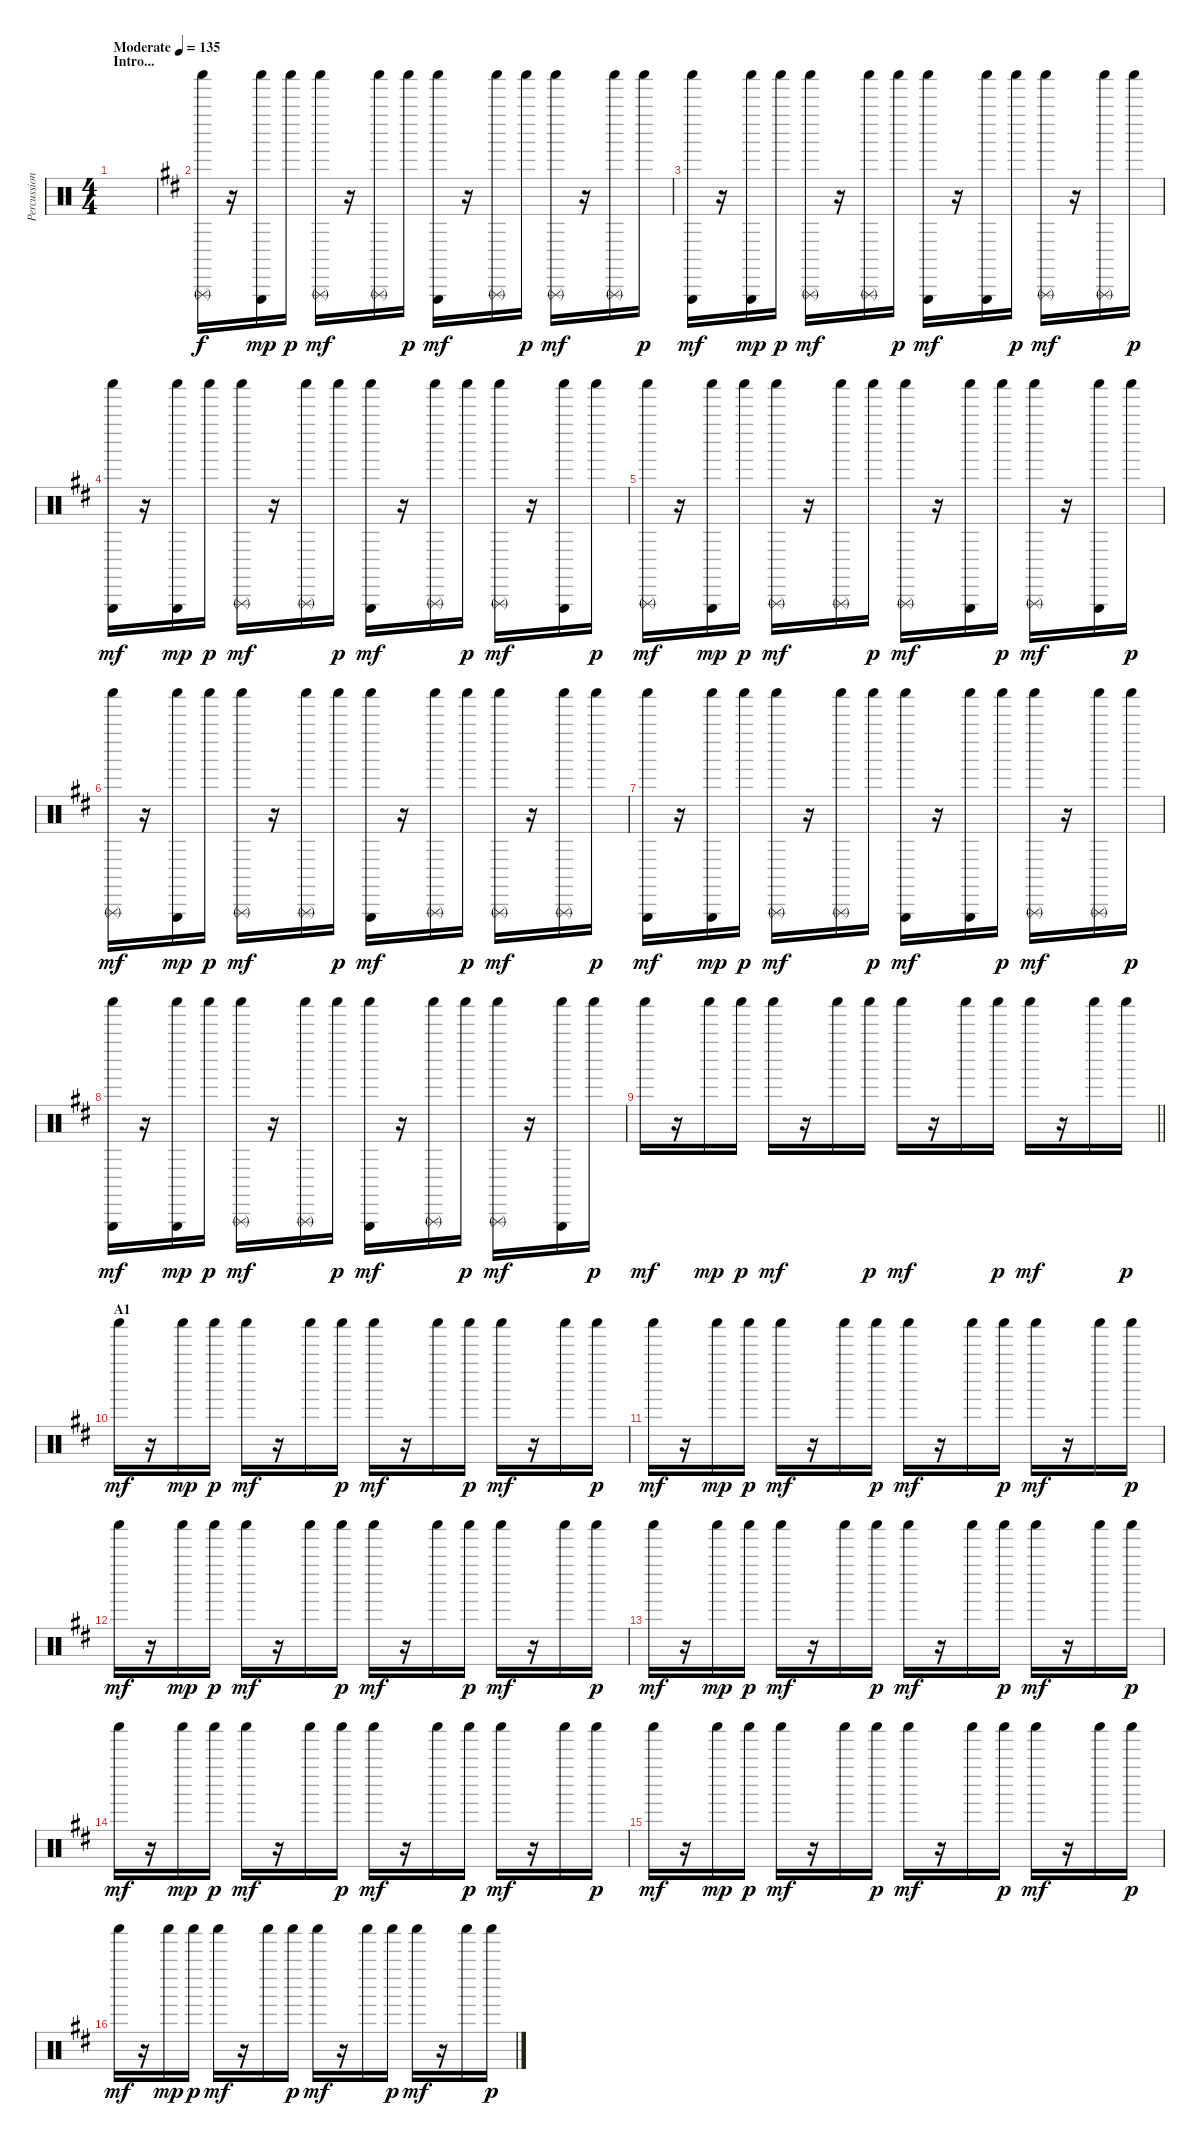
\track ("Percussion" "Percussion") {instrument percussion}
\staff {score}
\articulation defaults
\ts (4 4)
\section ("" "Intro...")
\tempo (135 "Moderate")
\clef neutral
\ks c
|
\ks d
("Triangle (rnute)" "Shaker (hit)").16 r.16 ("Triangle (hit)" "Shaker (hit)").16{dy mp} "Shaker (hit)".16{dy p} ("Triangle (rnute)" "Shaker (hit)").16{dy mf} r.16 ("Triangle (rnute)" "Shaker (hit)").16 "Shaker (hit)".16{dy p} ("Triangle (hit)" "Shaker (hit)").16{dy mf} r.16 ("Triangle (rnute)" "Shaker (hit)").16 "Shaker (hit)".16{dy p} ("Triangle (rnute)" "Shaker (hit)").16{dy mf} r.16 ("Triangle (rnute)" "Shaker (hit)").16 "Shaker (hit)".16{dy p} |
("Triangle (hit)" "Shaker (hit)").16{dy mf} r.16 ("Triangle (hit)" "Shaker (hit)").16{dy mp} "Shaker (hit)".16{dy p} ("Triangle (rnute)" "Shaker (hit)").16{dy mf} r.16 ("Triangle (rnute)" "Shaker (hit)").16 "Shaker (hit)".16{dy p} ("Triangle (hit)" "Shaker (hit)").16{dy mf} r.16 ("Triangle (hit)" "Shaker (hit)").16 "Shaker (hit)".16{dy p} ("Triangle (rnute)" "Shaker (hit)").16{dy mf} r.16 ("Triangle (rnute)" "Shaker (hit)").16 "Shaker (hit)".16{dy p} |
("Triangle (hit)" "Shaker (hit)").16{dy mf} r.16 ("Triangle (hit)" "Shaker (hit)").16{dy mp} "Shaker (hit)".16{dy p} ("Triangle (rnute)" "Shaker (hit)").16{dy mf} r.16 ("Triangle (rnute)" "Shaker (hit)").16 "Shaker (hit)".16{dy p} ("Triangle (hit)" "Shaker (hit)").16{dy mf} r.16 ("Triangle (rnute)" "Shaker (hit)").16 "Shaker (hit)".16{dy p} ("Triangle (rnute)" "Shaker (hit)").16{dy mf} r.16 ("Triangle (hit)" "Shaker (hit)").16 "Shaker (hit)".16{dy p} |
("Triangle (rnute)" "Shaker (hit)").16{dy mf} r.16 ("Triangle (hit)" "Shaker (hit)").16{dy mp} "Shaker (hit)".16{dy p} ("Triangle (rnute)" "Shaker (hit)").16{dy mf} r.16 ("Triangle (rnute)" "Shaker (hit)").16 "Shaker (hit)".16{dy p} ("Triangle (rnute)" "Shaker (hit)").16{dy mf} r.16 ("Triangle (hit)" "Shaker (hit)").16 "Shaker (hit)".16{dy p} ("Triangle (rnute)" "Shaker (hit)").16{dy mf} r.16 ("Triangle (hit)" "Shaker (hit)").16 "Shaker (hit)".16{dy p} |
("Triangle (rnute)" "Shaker (hit)").16{dy mf} r.16 ("Triangle (hit)" "Shaker (hit)").16{dy mp} "Shaker (hit)".16{dy p} ("Triangle (rnute)" "Shaker (hit)").16{dy mf} r.16 ("Triangle (rnute)" "Shaker (hit)").16 "Shaker (hit)".16{dy p} ("Triangle (hit)" "Shaker (hit)").16{dy mf} r.16 ("Triangle (rnute)" "Shaker (hit)").16 "Shaker (hit)".16{dy p} ("Triangle (rnute)" "Shaker (hit)").16{dy mf} r.16 ("Triangle (rnute)" "Shaker (hit)").16 "Shaker (hit)".16{dy p} |
("Triangle (hit)" "Shaker (hit)").16{dy mf} r.16 ("Triangle (hit)" "Shaker (hit)").16{dy mp} "Shaker (hit)".16{dy p} ("Triangle (rnute)" "Shaker (hit)").16{dy mf} r.16 ("Triangle (rnute)" "Shaker (hit)").16 "Shaker (hit)".16{dy p} ("Triangle (hit)" "Shaker (hit)").16{dy mf} r.16 ("Triangle (hit)" "Shaker (hit)").16 "Shaker (hit)".16{dy p} ("Triangle (rnute)" "Shaker (hit)").16{dy mf} r.16 ("Triangle (rnute)" "Shaker (hit)").16 "Shaker (hit)".16{dy p} |
("Triangle (hit)" "Shaker (hit)").16{dy mf} r.16 ("Triangle (hit)" "Shaker (hit)").16{dy mp} "Shaker (hit)".16{dy p} ("Triangle (rnute)" "Shaker (hit)").16{dy mf} r.16 ("Triangle (rnute)" "Shaker (hit)").16 "Shaker (hit)".16{dy p} ("Triangle (hit)" "Shaker (hit)").16{dy mf} r.16 ("Triangle (rnute)" "Shaker (hit)").16 "Shaker (hit)".16{dy p} ("Triangle (rnute)" "Shaker (hit)").16{dy mf} r.16 ("Triangle (hit)" "Shaker (hit)").16 "Shaker (hit)".16{dy p} |
\barLineRight lightlight "Shaker (hit)".16{dy mf}
r.16 "Shaker (hit)".16{dy mp} "Shaker (hit)".16{dy p} "Shaker (hit)".16{dy mf} r.16 "Shaker (hit)".16 "Shaker (hit)".16{dy p} "Shaker (hit)".16{dy mf} r.16 "Shaker (hit)".16 "Shaker (hit)".16{dy p} "Shaker (hit)".16{dy mf} r.16 "Shaker (hit)".16 "Shaker (hit)".16{dy p} |
\section ("" "A1")
"Shaker (hit)".16{dy mf} r.16 "Shaker (hit)".16{dy mp} "Shaker (hit)".16{dy p} "Shaker (hit)".16{dy mf} r.16 "Shaker (hit)".16 "Shaker (hit)".16{dy p} "Shaker (hit)".16{dy mf} r.16 "Shaker (hit)".16 "Shaker (hit)".16{dy p} "Shaker (hit)".16{dy mf} r.16 "Shaker (hit)".16 "Shaker (hit)".16{dy p} |
"Shaker (hit)".16{dy mf} r.16 "Shaker (hit)".16{dy mp} "Shaker (hit)".16{dy p} "Shaker (hit)".16{dy mf} r.16 "Shaker (hit)".16 "Shaker (hit)".16{dy p} "Shaker (hit)".16{dy mf} r.16 "Shaker (hit)".16 "Shaker (hit)".16{dy p} "Shaker (hit)".16{dy mf} r.16 "Shaker (hit)".16 "Shaker (hit)".16{dy p} |
"Shaker (hit)".16{dy mf} r.16 "Shaker (hit)".16{dy mp} "Shaker (hit)".16{dy p} "Shaker (hit)".16{dy mf} r.16 "Shaker (hit)".16 "Shaker (hit)".16{dy p} "Shaker (hit)".16{dy mf} r.16 "Shaker (hit)".16 "Shaker (hit)".16{dy p} "Shaker (hit)".16{dy mf} r.16 "Shaker (hit)".16 "Shaker (hit)".16{dy p} |
"Shaker (hit)".16{dy mf} r.16 "Shaker (hit)".16{dy mp} "Shaker (hit)".16{dy p} "Shaker (hit)".16{dy mf} r.16 "Shaker (hit)".16 "Shaker (hit)".16{dy p} "Shaker (hit)".16{dy mf} r.16 "Shaker (hit)".16 "Shaker (hit)".16{dy p} "Shaker (hit)".16{dy mf} r.16 "Shaker (hit)".16 "Shaker (hit)".16{dy p} |
"Shaker (hit)".16{dy mf} r.16 "Shaker (hit)".16{dy mp} "Shaker (hit)".16{dy p} "Shaker (hit)".16{dy mf} r.16 "Shaker (hit)".16 "Shaker (hit)".16{dy p} "Shaker (hit)".16{dy mf} r.16 "Shaker (hit)".16 "Shaker (hit)".16{dy p} "Shaker (hit)".16{dy mf} r.16 "Shaker (hit)".16 "Shaker (hit)".16{dy p} |
"Shaker (hit)".16{dy mf} r.16 "Shaker (hit)".16{dy mp} "Shaker (hit)".16{dy p} "Shaker (hit)".16{dy mf} r.16 "Shaker (hit)".16 "Shaker (hit)".16{dy p} "Shaker (hit)".16{dy mf} r.16 "Shaker (hit)".16 "Shaker (hit)".16{dy p} "Shaker (hit)".16{dy mf} r.16 "Shaker (hit)".16 "Shaker (hit)".16{dy p} |
"Shaker (hit)".16{dy mf} r.16 "Shaker (hit)".16{dy mp} "Shaker (hit)".16{dy p} "Shaker (hit)".16{dy mf} r.16 "Shaker (hit)".16 "Shaker (hit)".16{dy p} "Shaker (hit)".16{dy mf} r.16 "Shaker (hit)".16 "Shaker (hit)".16{dy p} "Shaker (hit)".16{dy mf} r.16 "Shaker (hit)".16 "Shaker (hit)".16{dy p}
